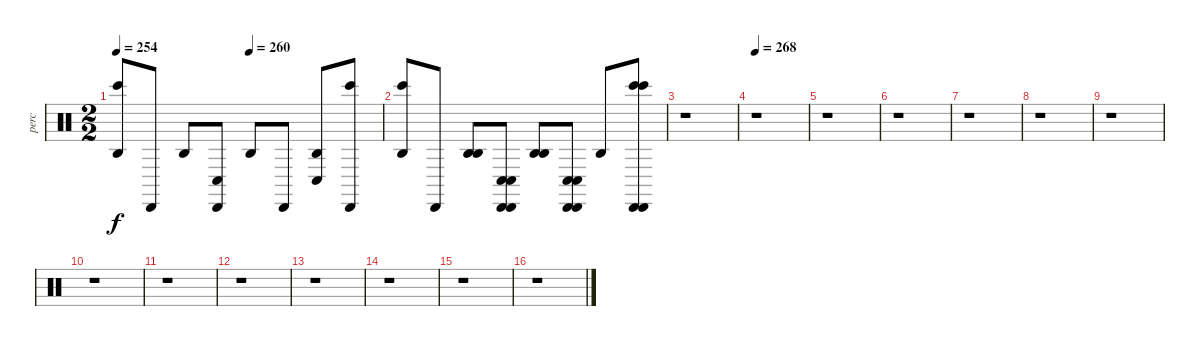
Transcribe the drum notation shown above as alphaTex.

\track ("perc" "perc") {instrument percussion}
\staff {score}
\articulation defaults
\ts (2 2)
\tempo 254
\tempo (260 0.5)
\clef neutral
\ks c
("Bongo High (hit)" "Agogo high (hit)").8{dy f} "Cabasa (hit)".8 "Agogo high (hit)".8 ("Conga low (hit)" "Cabasa (hit)").8 "Agogo high (hit)".8 "Cabasa (hit)".8 ("Conga low (hit)" "Agogo high (hit)").8 ("Bongo High (hit)" "Cabasa (hit)").8 |
("Bongo High (hit)" "Agogo high (hit)").8 "Cabasa (hit)".8 ("Agogo high (hit)" "Agogo high (hit)").8 ("Conga low (hit)" "Cabasa (hit)" "Conga low (hit)" "Cabasa (hit)").8 ("Agogo high (hit)" "Agogo high (hit)").8 ("Conga low (hit)" "Cabasa (hit)" "Conga low (hit)" "Cabasa (hit)").8 "Agogo high (hit)".8 ("Bongo High (hit)" "Cabasa (hit)" "Bongo High (hit)" "Cabasa (hit)").8 |
r.1 |
\tempo 268
r.1 |
r.1 |
r.1 |
r.1 |
r.1 |
r.1 |
r.1 |
r.1 |
r.1 |
r.1 |
r.1 |
r.1 |
r.1
